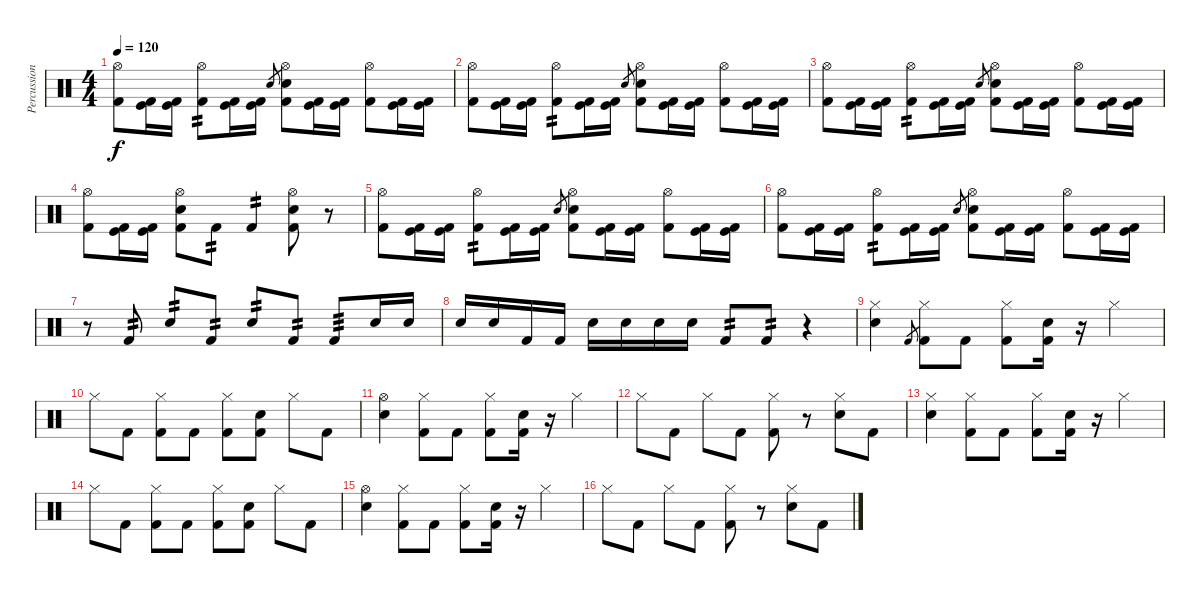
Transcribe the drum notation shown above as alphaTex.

\track ("Percussion" "Percussion") {instrument percussion}
\staff {score}
\articulation defaults
\ts (4 4)
\tempo 120
\clef neutral
\ks c
("Hi-Hat (open)" "Kick (hit) 2").8{dy f} ("Kick (hit) 2" "Kick (hit)").16 ("Kick (hit) 2" "Kick (hit)").16 ("Hi-Hat (open)" "Kick (hit) 2").8{tp 2} ("Kick (hit) 2" "Kick (hit)").16 ("Kick (hit) 2" "Kick (hit)").16 "Snare (hit) 2".8{gr} ("Hi-Hat (open)" "Snare (hit) 2" "Kick (hit) 2").8 ("Kick (hit) 2" "Kick (hit)").16 ("Kick (hit) 2" "Kick (hit)").16 ("Hi-Hat (open)" "Kick (hit) 2").8 ("Kick (hit) 2" "Kick (hit)").16 ("Kick (hit) 2" "Kick (hit)").16 |
("Hi-Hat (open)" "Kick (hit) 2").8 ("Kick (hit) 2" "Kick (hit)").16 ("Kick (hit) 2" "Kick (hit)").16 ("Hi-Hat (open)" "Kick (hit) 2").8{tp 2} ("Kick (hit) 2" "Kick (hit)").16 ("Kick (hit) 2" "Kick (hit)").16 "Snare (hit) 2".8{gr} ("Hi-Hat (open)" "Snare (hit) 2" "Kick (hit) 2").8 ("Kick (hit) 2" "Kick (hit)").16 ("Kick (hit) 2" "Kick (hit)").16 ("Hi-Hat (open)" "Kick (hit) 2").8 ("Kick (hit) 2" "Kick (hit)").16 ("Kick (hit) 2" "Kick (hit)").16 |
("Hi-Hat (open)" "Kick (hit) 2").8 ("Kick (hit) 2" "Kick (hit)").16 ("Kick (hit) 2" "Kick (hit)").16 ("Hi-Hat (open)" "Kick (hit) 2").8{tp 2} ("Kick (hit) 2" "Kick (hit)").16 ("Kick (hit) 2" "Kick (hit)").16 "Snare (hit) 2".8{gr} ("Hi-Hat (open)" "Snare (hit) 2" "Kick (hit) 2").8 ("Kick (hit) 2" "Kick (hit)").16 ("Kick (hit) 2" "Kick (hit)").16 ("Hi-Hat (open)" "Kick (hit) 2").8 ("Kick (hit) 2" "Kick (hit)").16 ("Kick (hit) 2" "Kick (hit)").16 |
("Hi-Hat (open)" "Kick (hit) 2").8 ("Kick (hit) 2" "Kick (hit)").16 ("Kick (hit) 2" "Kick (hit)").16 ("Hi-Hat (open)" "Snare (hit) 2" "Kick (hit) 2").8 "Kick (hit) 2".8{tp 2} "Kick (hit) 2".4{tp 2} ("Hi-Hat (open)" "Snare (hit) 2" "Kick (hit) 2").8 r.8 |
("Hi-Hat (open)" "Kick (hit) 2").8 ("Kick (hit) 2" "Kick (hit)").16 ("Kick (hit) 2" "Kick (hit)").16 ("Hi-Hat (open)" "Kick (hit) 2").8{tp 2} ("Kick (hit) 2" "Kick (hit)").16 ("Kick (hit) 2" "Kick (hit)").16 "Snare (hit) 2".8{gr} ("Hi-Hat (open)" "Snare (hit) 2" "Kick (hit) 2").8 ("Kick (hit) 2" "Kick (hit)").16 ("Kick (hit) 2" "Kick (hit)").16 ("Hi-Hat (open)" "Kick (hit) 2").8 ("Kick (hit) 2" "Kick (hit)").16 ("Kick (hit) 2" "Kick (hit)").16 |
("Hi-Hat (open)" "Kick (hit) 2").8 ("Kick (hit) 2" "Kick (hit)").16 ("Kick (hit) 2" "Kick (hit)").16 ("Hi-Hat (open)" "Kick (hit) 2").8{tp 2} ("Kick (hit) 2" "Kick (hit)").16 ("Kick (hit) 2" "Kick (hit)").16 "Snare (hit) 2".8{gr} ("Hi-Hat (open)" "Snare (hit) 2" "Kick (hit) 2").8 ("Kick (hit) 2" "Kick (hit)").16 ("Kick (hit) 2" "Kick (hit)").16 ("Hi-Hat (open)" "Kick (hit) 2").8 ("Kick (hit) 2" "Kick (hit)").16 ("Kick (hit) 2" "Kick (hit)").16 |
r.8 "Kick (hit) 2".8{tp 2} "Snare (hit) 2".8{tp 2} "Kick (hit) 2".8{tp 2} "Snare (hit) 2".8{tp 2} "Kick (hit) 2".8{tp 2} "Kick (hit) 2".8{tp 3} "Snare (hit) 2".16 "Snare (hit) 2".16 |
"Snare (hit) 2".16 "Snare (hit) 2".16 "Kick (hit) 2".16 "Kick (hit) 2".16 "Snare (hit) 2".16 "Snare (hit) 2".16 "Snare (hit) 2".16 "Snare (hit) 2".16 "Kick (hit) 2".8{tp 2} "Kick (hit) 2".8{tp 2} r.4 |
("Hi-Hat (closed)" "Snare (hit) 2").4 "Kick (hit) 2".8{gr} ("Hi-Hat (closed)" "Kick (hit) 2").8 "Kick (hit) 2".8 ("Hi-Hat (closed)" "Kick (hit) 2").8 ("Snare (hit) 2" "Kick (hit) 2").16 r.16 "Hi-Hat (closed)".4 |
"Hi-Hat (closed)".8 "Kick (hit) 2".8 ("Hi-Hat (closed)" "Kick (hit) 2").8 "Kick (hit) 2".8 ("Hi-Hat (closed)" "Kick (hit) 2").8 ("Snare (hit) 2" "Kick (hit) 2").8 "Hi-Hat (closed)".8 "Kick (hit) 2".8 |
("Hi-Hat (open)" "Snare (hit) 2").4 ("Hi-Hat (closed)" "Kick (hit) 2").8 "Kick (hit) 2".8 ("Hi-Hat (closed)" "Kick (hit) 2").8 ("Snare (hit) 2" "Kick (hit) 2").16 r.16 "Hi-Hat (closed)".4 |
"Hi-Hat (closed)".8 "Kick (hit) 2".8 "Hi-Hat (closed)".8 "Kick (hit) 2".8 ("Hi-Hat (closed)" "Kick (hit) 2").8 r.8 ("Hi-Hat (closed)" "Snare (hit) 2").8 "Kick (hit) 2".8 |
("Hi-Hat (closed)" "Snare (hit) 2").4 ("Hi-Hat (closed)" "Kick (hit) 2").8 "Kick (hit) 2".8 ("Hi-Hat (closed)" "Kick (hit) 2").8 ("Snare (hit) 2" "Kick (hit) 2").16 r.16 "Hi-Hat (closed)".4 |
"Hi-Hat (closed)".8 "Kick (hit) 2".8 ("Hi-Hat (closed)" "Kick (hit) 2").8 "Kick (hit) 2".8 ("Hi-Hat (closed)" "Kick (hit) 2").8 ("Snare (hit) 2" "Kick (hit) 2").8 "Hi-Hat (closed)".8 "Kick (hit) 2".8 |
("Hi-Hat (open)" "Snare (hit) 2").4 ("Hi-Hat (closed)" "Kick (hit) 2").8 "Kick (hit) 2".8 ("Hi-Hat (closed)" "Kick (hit) 2").8 ("Snare (hit) 2" "Kick (hit) 2").16 r.16 "Hi-Hat (closed)".4 |
"Hi-Hat (closed)".8 "Kick (hit) 2".8 "Hi-Hat (closed)".8 "Kick (hit) 2".8 ("Hi-Hat (closed)" "Kick (hit) 2").8 r.8 ("Hi-Hat (closed)" "Snare (hit) 2").8 "Kick (hit) 2".8
